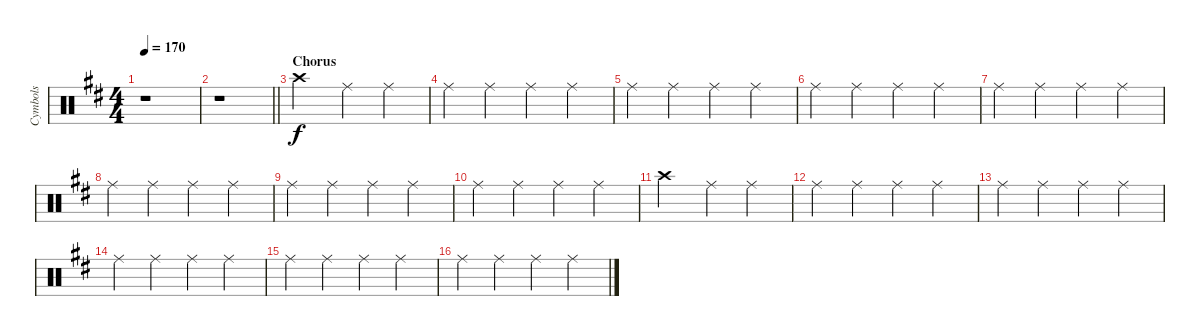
\track ("Cymbols" "Cymbols") {instrument percussion}
\staff {score}
\articulation defaults
\ts (4 4)
\tempo 170
\clef neutral
\ks d
r.1{dy f} |
\barLineRight lightlight
r.1 |
\section ("" "Chorus")
"Crash high (hit)".2 "Ride (middle)".4 "Ride (middle)".4 |
"Ride (middle)".4 "Ride (middle)".4 "Ride (middle)".4 "Ride (middle)".4 |
"Ride (middle)".4 "Ride (middle)".4 "Ride (middle)".4 "Ride (middle)".4 |
"Ride (middle)".4 "Ride (middle)".4 "Ride (middle)".4 "Ride (middle)".4 |
"Ride (middle)".4 "Ride (middle)".4 "Ride (middle)".4 "Ride (middle)".4 |
"Ride (middle)".4 "Ride (middle)".4 "Ride (middle)".4 "Ride (middle)".4 |
"Ride (middle)".4 "Ride (middle)".4 "Ride (middle)".4 "Ride (middle)".4 |
"Ride (middle)".4 "Ride (middle)".4 "Ride (middle)".4 "Ride (middle)".4 |
"Crash high (hit)".2 "Ride (middle)".4 "Ride (middle)".4 |
"Ride (middle)".4 "Ride (middle)".4 "Ride (middle)".4 "Ride (middle)".4 |
"Ride (middle)".4 "Ride (middle)".4 "Ride (middle)".4 "Ride (middle)".4 |
"Ride (middle)".4 "Ride (middle)".4 "Ride (middle)".4 "Ride (middle)".4 |
"Ride (middle)".4 "Ride (middle)".4 "Ride (middle)".4 "Ride (middle)".4 |
"Ride (middle)".4 "Ride (middle)".4 "Ride (middle)".4 "Ride (middle)".4
